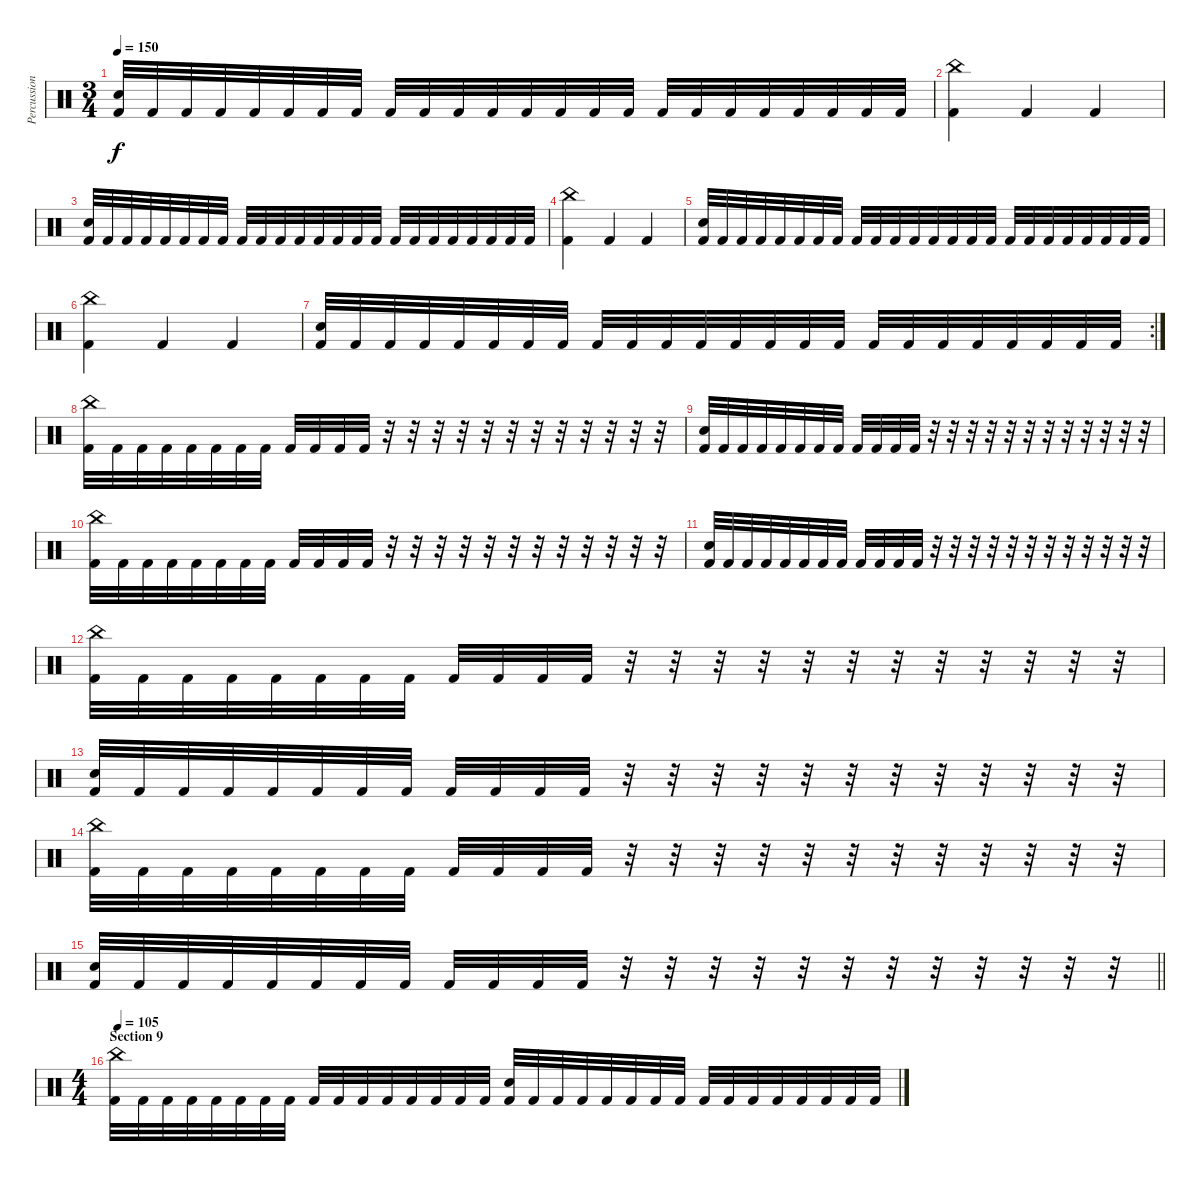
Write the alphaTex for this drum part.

\track ("Percussions" "Percussion") {instrument percussion}
\staff {score}
\articulation defaults
\ts (3 4)
\tempo 150
\clef neutral
\ks c
("Electric Snare (hit)" "Kick (hit) 2").32{dy f} "Kick (hit) 2".32 "Kick (hit) 2".32 "Kick (hit) 2".32 "Kick (hit) 2".32 "Kick (hit) 2".32 "Kick (hit) 2".32 "Kick (hit) 2".32 "Kick (hit) 2".32 "Kick (hit) 2".32 "Kick (hit) 2".32 "Kick (hit) 2".32 "Kick (hit) 2".32 "Kick (hit) 2".32 "Kick (hit) 2".32 "Kick (hit) 2".32 "Kick (hit) 2".32 "Kick (hit) 2".32 "Kick (hit) 2".32 "Kick (hit) 2".32 "Kick (hit) 2".32 "Kick (hit) 2".32 "Kick (hit) 2".32 "Kick (hit) 2".32 |
("China (hit)" "Kick (hit) 2").4 "Kick (hit) 2".4 "Kick (hit) 2".4 |
("Electric Snare (hit)" "Kick (hit) 2").32 "Kick (hit) 2".32 "Kick (hit) 2".32 "Kick (hit) 2".32 "Kick (hit) 2".32 "Kick (hit) 2".32 "Kick (hit) 2".32 "Kick (hit) 2".32 "Kick (hit) 2".32 "Kick (hit) 2".32 "Kick (hit) 2".32 "Kick (hit) 2".32 "Kick (hit) 2".32 "Kick (hit) 2".32 "Kick (hit) 2".32 "Kick (hit) 2".32 "Kick (hit) 2".32 "Kick (hit) 2".32 "Kick (hit) 2".32 "Kick (hit) 2".32 "Kick (hit) 2".32 "Kick (hit) 2".32 "Kick (hit) 2".32 "Kick (hit) 2".32 |
("China (hit)" "Kick (hit) 2").4 "Kick (hit) 2".4 "Kick (hit) 2".4 |
("Electric Snare (hit)" "Kick (hit) 2").32 "Kick (hit) 2".32 "Kick (hit) 2".32 "Kick (hit) 2".32 "Kick (hit) 2".32 "Kick (hit) 2".32 "Kick (hit) 2".32 "Kick (hit) 2".32 "Kick (hit) 2".32 "Kick (hit) 2".32 "Kick (hit) 2".32 "Kick (hit) 2".32 "Kick (hit) 2".32 "Kick (hit) 2".32 "Kick (hit) 2".32 "Kick (hit) 2".32 "Kick (hit) 2".32 "Kick (hit) 2".32 "Kick (hit) 2".32 "Kick (hit) 2".32 "Kick (hit) 2".32 "Kick (hit) 2".32 "Kick (hit) 2".32 "Kick (hit) 2".32 |
("China (hit)" "Kick (hit) 2").4 "Kick (hit) 2".4 "Kick (hit) 2".4 |
\rc 2
("Electric Snare (hit)" "Kick (hit) 2").32 "Kick (hit) 2".32 "Kick (hit) 2".32 "Kick (hit) 2".32 "Kick (hit) 2".32 "Kick (hit) 2".32 "Kick (hit) 2".32 "Kick (hit) 2".32 "Kick (hit) 2".32 "Kick (hit) 2".32 "Kick (hit) 2".32 "Kick (hit) 2".32 "Kick (hit) 2".32 "Kick (hit) 2".32 "Kick (hit) 2".32 "Kick (hit) 2".32 "Kick (hit) 2".32 "Kick (hit) 2".32 "Kick (hit) 2".32 "Kick (hit) 2".32 "Kick (hit) 2".32 "Kick (hit) 2".32 "Kick (hit) 2".32 "Kick (hit) 2".32 |
("China (hit)" "Kick (hit) 2").32 "Kick (hit) 2".32 "Kick (hit) 2".32 "Kick (hit) 2".32 "Kick (hit) 2".32 "Kick (hit) 2".32 "Kick (hit) 2".32 "Kick (hit) 2".32 "Kick (hit) 2".32 "Kick (hit) 2".32 "Kick (hit) 2".32 "Kick (hit) 2".32 r.32 r.32 r.32 r.32 r.32 r.32 r.32 r.32 r.32 r.32 r.32 r.32 |
("Electric Snare (hit)" "Kick (hit) 2").32 "Kick (hit) 2".32 "Kick (hit) 2".32 "Kick (hit) 2".32 "Kick (hit) 2".32 "Kick (hit) 2".32 "Kick (hit) 2".32 "Kick (hit) 2".32 "Kick (hit) 2".32 "Kick (hit) 2".32 "Kick (hit) 2".32 "Kick (hit) 2".32 r.32 r.32 r.32 r.32 r.32 r.32 r.32 r.32 r.32 r.32 r.32 r.32 |
("China (hit)" "Kick (hit) 2").32 "Kick (hit) 2".32 "Kick (hit) 2".32 "Kick (hit) 2".32 "Kick (hit) 2".32 "Kick (hit) 2".32 "Kick (hit) 2".32 "Kick (hit) 2".32 "Kick (hit) 2".32 "Kick (hit) 2".32 "Kick (hit) 2".32 "Kick (hit) 2".32 r.32 r.32 r.32 r.32 r.32 r.32 r.32 r.32 r.32 r.32 r.32 r.32 |
("Electric Snare (hit)" "Kick (hit) 2").32 "Kick (hit) 2".32 "Kick (hit) 2".32 "Kick (hit) 2".32 "Kick (hit) 2".32 "Kick (hit) 2".32 "Kick (hit) 2".32 "Kick (hit) 2".32 "Kick (hit) 2".32 "Kick (hit) 2".32 "Kick (hit) 2".32 "Kick (hit) 2".32 r.32 r.32 r.32 r.32 r.32 r.32 r.32 r.32 r.32 r.32 r.32 r.32 |
("China (hit)" "Kick (hit) 2").32 "Kick (hit) 2".32 "Kick (hit) 2".32 "Kick (hit) 2".32 "Kick (hit) 2".32 "Kick (hit) 2".32 "Kick (hit) 2".32 "Kick (hit) 2".32 "Kick (hit) 2".32 "Kick (hit) 2".32 "Kick (hit) 2".32 "Kick (hit) 2".32 r.32 r.32 r.32 r.32 r.32 r.32 r.32 r.32 r.32 r.32 r.32 r.32 |
("Electric Snare (hit)" "Kick (hit) 2").32 "Kick (hit) 2".32 "Kick (hit) 2".32 "Kick (hit) 2".32 "Kick (hit) 2".32 "Kick (hit) 2".32 "Kick (hit) 2".32 "Kick (hit) 2".32 "Kick (hit) 2".32 "Kick (hit) 2".32 "Kick (hit) 2".32 "Kick (hit) 2".32 r.32 r.32 r.32 r.32 r.32 r.32 r.32 r.32 r.32 r.32 r.32 r.32 |
("China (hit)" "Kick (hit) 2").32 "Kick (hit) 2".32 "Kick (hit) 2".32 "Kick (hit) 2".32 "Kick (hit) 2".32 "Kick (hit) 2".32 "Kick (hit) 2".32 "Kick (hit) 2".32 "Kick (hit) 2".32 "Kick (hit) 2".32 "Kick (hit) 2".32 "Kick (hit) 2".32 r.32 r.32 r.32 r.32 r.32 r.32 r.32 r.32 r.32 r.32 r.32 r.32 |
\barLineRight lightlight
("Electric Snare (hit)" "Kick (hit) 2").32 "Kick (hit) 2".32 "Kick (hit) 2".32 "Kick (hit) 2".32 "Kick (hit) 2".32 "Kick (hit) 2".32 "Kick (hit) 2".32 "Kick (hit) 2".32 "Kick (hit) 2".32 "Kick (hit) 2".32 "Kick (hit) 2".32 "Kick (hit) 2".32 r.32 r.32 r.32 r.32 r.32 r.32 r.32 r.32 r.32 r.32 r.32 r.32 |
\ts (4 4)
\section ("" "Section 9")
\tempo 105
("China (hit)" "Kick (hit) 2").32 "Kick (hit) 2".32 "Kick (hit) 2".32 "Kick (hit) 2".32 "Kick (hit) 2".32 "Kick (hit) 2".32 "Kick (hit) 2".32 "Kick (hit) 2".32 "Kick (hit) 2".32 "Kick (hit) 2".32 "Kick (hit) 2".32 "Kick (hit) 2".32 "Kick (hit) 2".32 "Kick (hit) 2".32 "Kick (hit) 2".32 "Kick (hit) 2".32 ("Electric Snare (hit)" "Kick (hit) 2").32 "Kick (hit) 2".32 "Kick (hit) 2".32 "Kick (hit) 2".32 "Kick (hit) 2".32 "Kick (hit) 2".32 "Kick (hit) 2".32 "Kick (hit) 2".32 "Kick (hit) 2".32 "Kick (hit) 2".32 "Kick (hit) 2".32 "Kick (hit) 2".32 "Kick (hit) 2".32 "Kick (hit) 2".32 "Kick (hit) 2".32 "Kick (hit) 2".32
